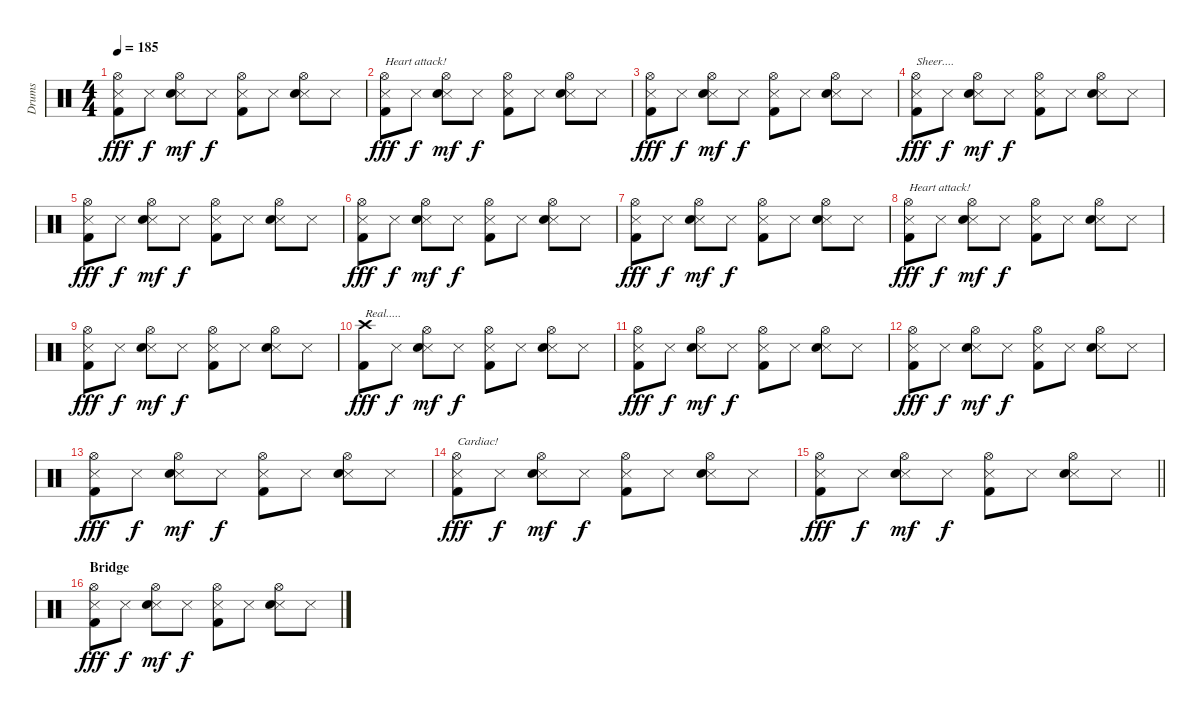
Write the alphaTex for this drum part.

\track ("Drums" "Drums") {instrument percussion}
\staff {score}
\articulation defaults
\ts (4 4)
\tempo 185
\clef neutral
\ks c
("Hi-Hat (open)" "Metronome (hit)" "Kick (hit) 2").8{dy fff} "Metronome (hit)".8{dy f} ("Hi-Hat (open)" "Metronome (hit)" "Snare (hit) 2").8{dy mf} "Metronome (hit)".8{dy f} ("Hi-Hat (open)" "Metronome (hit)" "Kick (hit) 2").8 "Metronome (hit)".8 ("Hi-Hat (open)" "Metronome (hit)" "Snare (hit) 2").8 "Metronome (hit)".8 |
("Hi-Hat (open)" "Metronome (hit)" "Kick (hit) 2").8{txt "Heart attack!" dy fff} "Metronome (hit)".8{dy f} ("Hi-Hat (open)" "Metronome (hit)" "Snare (hit) 2").8{dy mf} "Metronome (hit)".8{dy f} ("Hi-Hat (open)" "Metronome (hit)" "Kick (hit) 2").8 "Metronome (hit)".8 ("Hi-Hat (open)" "Metronome (hit)" "Snare (hit) 2").8 "Metronome (hit)".8 |
("Hi-Hat (open)" "Metronome (hit)" "Kick (hit) 2").8{dy fff} "Metronome (hit)".8{dy f} ("Hi-Hat (open)" "Metronome (hit)" "Snare (hit) 2").8{dy mf} "Metronome (hit)".8{dy f} ("Hi-Hat (open)" "Metronome (hit)" "Kick (hit) 2").8 "Metronome (hit)".8 ("Hi-Hat (open)" "Metronome (hit)" "Snare (hit) 2").8 "Metronome (hit)".8 |
("Hi-Hat (open)" "Metronome (hit)" "Kick (hit) 2").8{txt "Sheer...." dy fff} "Metronome (hit)".8{dy f} ("Hi-Hat (open)" "Metronome (hit)" "Snare (hit) 2").8{dy mf} "Metronome (hit)".8{dy f} ("Hi-Hat (open)" "Metronome (hit)" "Kick (hit) 2").8 "Metronome (hit)".8 ("Hi-Hat (open)" "Metronome (hit)" "Snare (hit) 2").8 "Metronome (hit)".8 |
("Hi-Hat (open)" "Metronome (hit)" "Kick (hit) 2").8{dy fff} "Metronome (hit)".8{dy f} ("Hi-Hat (open)" "Metronome (hit)" "Snare (hit) 2").8{dy mf} "Metronome (hit)".8{dy f} ("Hi-Hat (open)" "Metronome (hit)" "Kick (hit) 2").8 "Metronome (hit)".8 ("Hi-Hat (open)" "Metronome (hit)" "Snare (hit) 2").8 "Metronome (hit)".8 |
("Hi-Hat (open)" "Metronome (hit)" "Kick (hit) 2").8{dy fff} "Metronome (hit)".8{dy f} ("Hi-Hat (open)" "Metronome (hit)" "Snare (hit) 2").8{dy mf} "Metronome (hit)".8{dy f} ("Hi-Hat (open)" "Metronome (hit)" "Kick (hit) 2").8 "Metronome (hit)".8 ("Hi-Hat (open)" "Metronome (hit)" "Snare (hit) 2").8 "Metronome (hit)".8 |
("Hi-Hat (open)" "Metronome (hit)" "Kick (hit) 2").8{dy fff} "Metronome (hit)".8{dy f} ("Hi-Hat (open)" "Metronome (hit)" "Snare (hit) 2").8{dy mf} "Metronome (hit)".8{dy f} ("Hi-Hat (open)" "Metronome (hit)" "Kick (hit) 2").8 "Metronome (hit)".8 ("Hi-Hat (open)" "Metronome (hit)" "Snare (hit) 2").8 "Metronome (hit)".8 |
("Hi-Hat (open)" "Metronome (hit)" "Kick (hit) 2").8{txt "Heart attack!" dy fff} "Metronome (hit)".8{dy f} ("Hi-Hat (open)" "Metronome (hit)" "Snare (hit) 2").8{dy mf} "Metronome (hit)".8{dy f} ("Hi-Hat (open)" "Metronome (hit)" "Kick (hit) 2").8 "Metronome (hit)".8 ("Hi-Hat (open)" "Metronome (hit)" "Snare (hit) 2").8 "Metronome (hit)".8 |
("Hi-Hat (open)" "Metronome (hit)" "Kick (hit) 2").8{dy fff} "Metronome (hit)".8{dy f} ("Hi-Hat (open)" "Metronome (hit)" "Snare (hit) 2").8{dy mf} "Metronome (hit)".8{dy f} ("Hi-Hat (open)" "Metronome (hit)" "Kick (hit) 2").8 "Metronome (hit)".8 ("Hi-Hat (open)" "Metronome (hit)" "Snare (hit) 2").8 "Metronome (hit)".8 |
("Crash high (hit)" "Kick (hit) 2").8{txt "Real....." dy fff} "Metronome (hit)".8{dy f} ("Hi-Hat (open)" "Metronome (hit)" "Snare (hit) 2").8{dy mf} "Metronome (hit)".8{dy f} ("Hi-Hat (open)" "Metronome (hit)" "Kick (hit) 2").8 "Metronome (hit)".8 ("Hi-Hat (open)" "Metronome (hit)" "Snare (hit) 2").8 "Metronome (hit)".8 |
("Hi-Hat (open)" "Metronome (hit)" "Kick (hit) 2").8{dy fff} "Metronome (hit)".8{dy f} ("Hi-Hat (open)" "Metronome (hit)" "Snare (hit) 2").8{dy mf} "Metronome (hit)".8{dy f} ("Hi-Hat (open)" "Metronome (hit)" "Kick (hit) 2").8 "Metronome (hit)".8 ("Hi-Hat (open)" "Metronome (hit)" "Snare (hit) 2").8 "Metronome (hit)".8 |
("Hi-Hat (open)" "Metronome (hit)" "Kick (hit) 2").8{dy fff} "Metronome (hit)".8{dy f} ("Hi-Hat (open)" "Metronome (hit)" "Snare (hit) 2").8{dy mf} "Metronome (hit)".8{dy f} ("Hi-Hat (open)" "Metronome (hit)" "Kick (hit) 2").8 "Metronome (hit)".8 ("Hi-Hat (open)" "Metronome (hit)" "Snare (hit) 2").8 "Metronome (hit)".8 |
("Hi-Hat (open)" "Metronome (hit)" "Kick (hit) 2").8{dy fff} "Metronome (hit)".8{dy f} ("Hi-Hat (open)" "Metronome (hit)" "Snare (hit) 2").8{dy mf} "Metronome (hit)".8{dy f} ("Hi-Hat (open)" "Metronome (hit)" "Kick (hit) 2").8 "Metronome (hit)".8 ("Hi-Hat (open)" "Metronome (hit)" "Snare (hit) 2").8 "Metronome (hit)".8 |
("Hi-Hat (open)" "Metronome (hit)" "Kick (hit) 2").8{txt "Cardiac!" dy fff} "Metronome (hit)".8{dy f} ("Hi-Hat (open)" "Metronome (hit)" "Snare (hit) 2").8{dy mf} "Metronome (hit)".8{dy f} ("Hi-Hat (open)" "Metronome (hit)" "Kick (hit) 2").8 "Metronome (hit)".8 ("Hi-Hat (open)" "Metronome (hit)" "Snare (hit) 2").8 "Metronome (hit)".8 |
\barLineRight lightlight
("Hi-Hat (open)" "Metronome (hit)" "Kick (hit) 2").8{dy fff} "Metronome (hit)".8{dy f} ("Hi-Hat (open)" "Metronome (hit)" "Snare (hit) 2").8{dy mf} "Metronome (hit)".8{dy f} ("Hi-Hat (open)" "Metronome (hit)" "Kick (hit) 2").8 "Metronome (hit)".8 ("Hi-Hat (open)" "Metronome (hit)" "Snare (hit) 2").8 "Metronome (hit)".8 |
\section ("" "Bridge")
("Hi-Hat (open)" "Metronome (hit)" "Kick (hit) 2").8{dy fff} "Metronome (hit)".8{dy f} ("Hi-Hat (open)" "Metronome (hit)" "Snare (hit) 2").8{dy mf} "Metronome (hit)".8{dy f} ("Hi-Hat (open)" "Metronome (hit)" "Kick (hit) 2").8 "Metronome (hit)".8 ("Hi-Hat (open)" "Metronome (hit)" "Snare (hit) 2").8 "Metronome (hit)".8
